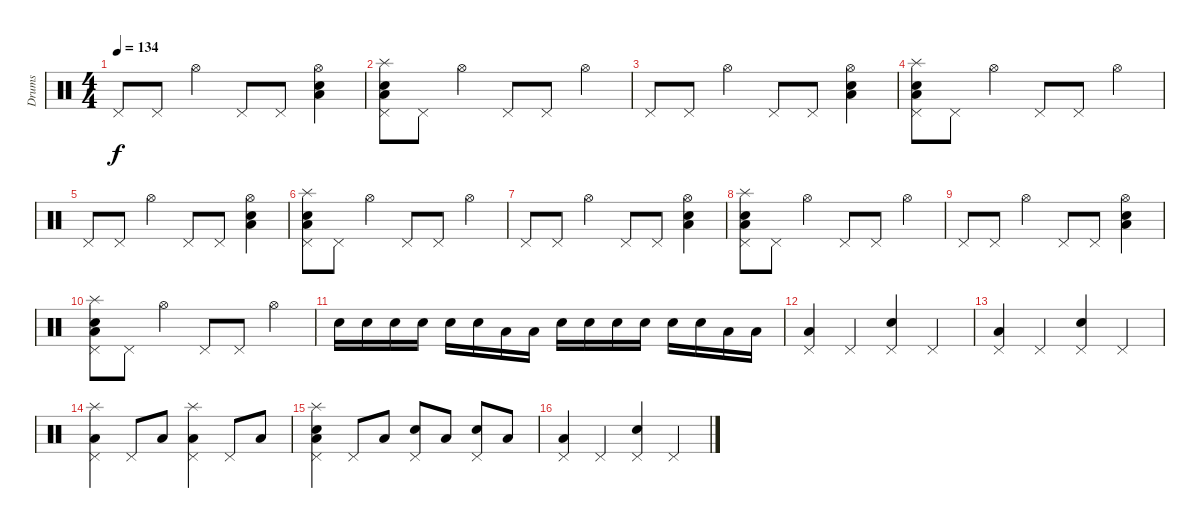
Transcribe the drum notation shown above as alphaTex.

\track ("Drums" "Drums") {instrument percussion}
\staff {score}
\articulation defaults
\ts (4 4)
\tempo 134
\clef neutral
\ks c "Pedal Hi-Hat (hit)".8{dy f} "Pedal Hi-Hat (hit)".8 "Hi-Hat (open)".4 "Pedal Hi-Hat (hit)".8 "Pedal Hi-Hat (hit)".8
("Electric Snare (hit)" "Low Floor Tom (hit)" "Hi-Hat (open)").4 |
("Electric Snare (hit)" "Low Floor Tom (hit)" "Pedal Hi-Hat (hit)" "Splash (hit)").8 "Pedal Hi-Hat (hit)".8 "Hi-Hat (open)".4 "Pedal Hi-Hat (hit)".8 "Pedal Hi-Hat (hit)".8 "Hi-Hat (open)".4 |
"Pedal Hi-Hat (hit)".8 "Pedal Hi-Hat (hit)".8 "Hi-Hat (open)".4 "Pedal Hi-Hat (hit)".8 "Pedal Hi-Hat (hit)".8 ("Electric Snare (hit)" "Low Floor Tom (hit)" "Hi-Hat (open)").4 |
("Electric Snare (hit)" "Low Floor Tom (hit)" "Pedal Hi-Hat (hit)" "Splash (hit)").8 "Pedal Hi-Hat (hit)".8 "Hi-Hat (open)".4 "Pedal Hi-Hat (hit)".8 "Pedal Hi-Hat (hit)".8 "Hi-Hat (open)".4 |
"Pedal Hi-Hat (hit)".8 "Pedal Hi-Hat (hit)".8 "Hi-Hat (open)".4 "Pedal Hi-Hat (hit)".8 "Pedal Hi-Hat (hit)".8 ("Electric Snare (hit)" "Low Floor Tom (hit)" "Hi-Hat (open)").4 |
("Electric Snare (hit)" "Low Floor Tom (hit)" "Pedal Hi-Hat (hit)" "Splash (hit)").8 "Pedal Hi-Hat (hit)".8 "Hi-Hat (open)".4 "Pedal Hi-Hat (hit)".8 "Pedal Hi-Hat (hit)".8 "Hi-Hat (open)".4 |
"Pedal Hi-Hat (hit)".8 "Pedal Hi-Hat (hit)".8 "Hi-Hat (open)".4 "Pedal Hi-Hat (hit)".8 "Pedal Hi-Hat (hit)".8 ("Electric Snare (hit)" "Low Floor Tom (hit)" "Hi-Hat (open)").4 |
("Electric Snare (hit)" "Low Floor Tom (hit)" "Pedal Hi-Hat (hit)" "Splash (hit)").8 "Pedal Hi-Hat (hit)".8 "Hi-Hat (open)".4 "Pedal Hi-Hat (hit)".8 "Pedal Hi-Hat (hit)".8 "Hi-Hat (open)".4 |
"Pedal Hi-Hat (hit)".8 "Pedal Hi-Hat (hit)".8 "Hi-Hat (open)".4 "Pedal Hi-Hat (hit)".8 "Pedal Hi-Hat (hit)".8 ("Electric Snare (hit)" "Low Floor Tom (hit)" "Hi-Hat (open)").4 |
("Electric Snare (hit)" "Low Floor Tom (hit)" "Pedal Hi-Hat (hit)" "Splash (hit)").8 "Pedal Hi-Hat (hit)".8 "Hi-Hat (open)".4 "Pedal Hi-Hat (hit)".8 "Pedal Hi-Hat (hit)".8 "Hi-Hat (open)".4 |
"Electric Snare (hit)".16 "Electric Snare (hit)".16 "Electric Snare (hit)".16 "Electric Snare (hit)".16 "Electric Snare (hit)".16 "Electric Snare (hit)".16 "Low Floor Tom (hit)".16 "Low Floor Tom (hit)".16 "Electric Snare (hit)".16 "Electric Snare (hit)".16 "Electric Snare (hit)".16 "Electric Snare (hit)".16 "Electric Snare (hit)".16 "Electric Snare (hit)".16 "Low Floor Tom (hit)".16 "Low Floor Tom (hit)".16 |
("Low Floor Tom (hit)" "Pedal Hi-Hat (hit)").4 "Pedal Hi-Hat (hit)".4 ("Electric Snare (hit)" "Pedal Hi-Hat (hit)").4 "Pedal Hi-Hat (hit)".4 |
("Low Floor Tom (hit)" "Pedal Hi-Hat (hit)").4 "Pedal Hi-Hat (hit)".4 ("Electric Snare (hit)" "Pedal Hi-Hat (hit)").4 "Pedal Hi-Hat (hit)".4 |
("Low Floor Tom (hit)" "Pedal Hi-Hat (hit)" "Splash (hit)").4 "Pedal Hi-Hat (hit)".8 "Low Floor Tom (hit)".8 ("Low Floor Tom (hit)" "Pedal Hi-Hat (hit)" "Splash (hit)").4 "Pedal Hi-Hat (hit)".8 "Low Floor Tom (hit)".8 |
("Electric Snare (hit)" "Low Floor Tom (hit)" "Pedal Hi-Hat (hit)" "Splash (hit)").4 "Pedal Hi-Hat (hit)".8 "Low Floor Tom (hit)".8 ("Electric Snare (hit)" "Pedal Hi-Hat (hit)").8 "Low Floor Tom (hit)".8 ("Electric Snare (hit)" "Pedal Hi-Hat (hit)").8 "Low Floor Tom (hit)".8 |
("Low Floor Tom (hit)" "Pedal Hi-Hat (hit)").4 "Pedal Hi-Hat (hit)".4 ("Electric Snare (hit)" "Pedal Hi-Hat (hit)").4 "Pedal Hi-Hat (hit)".4
